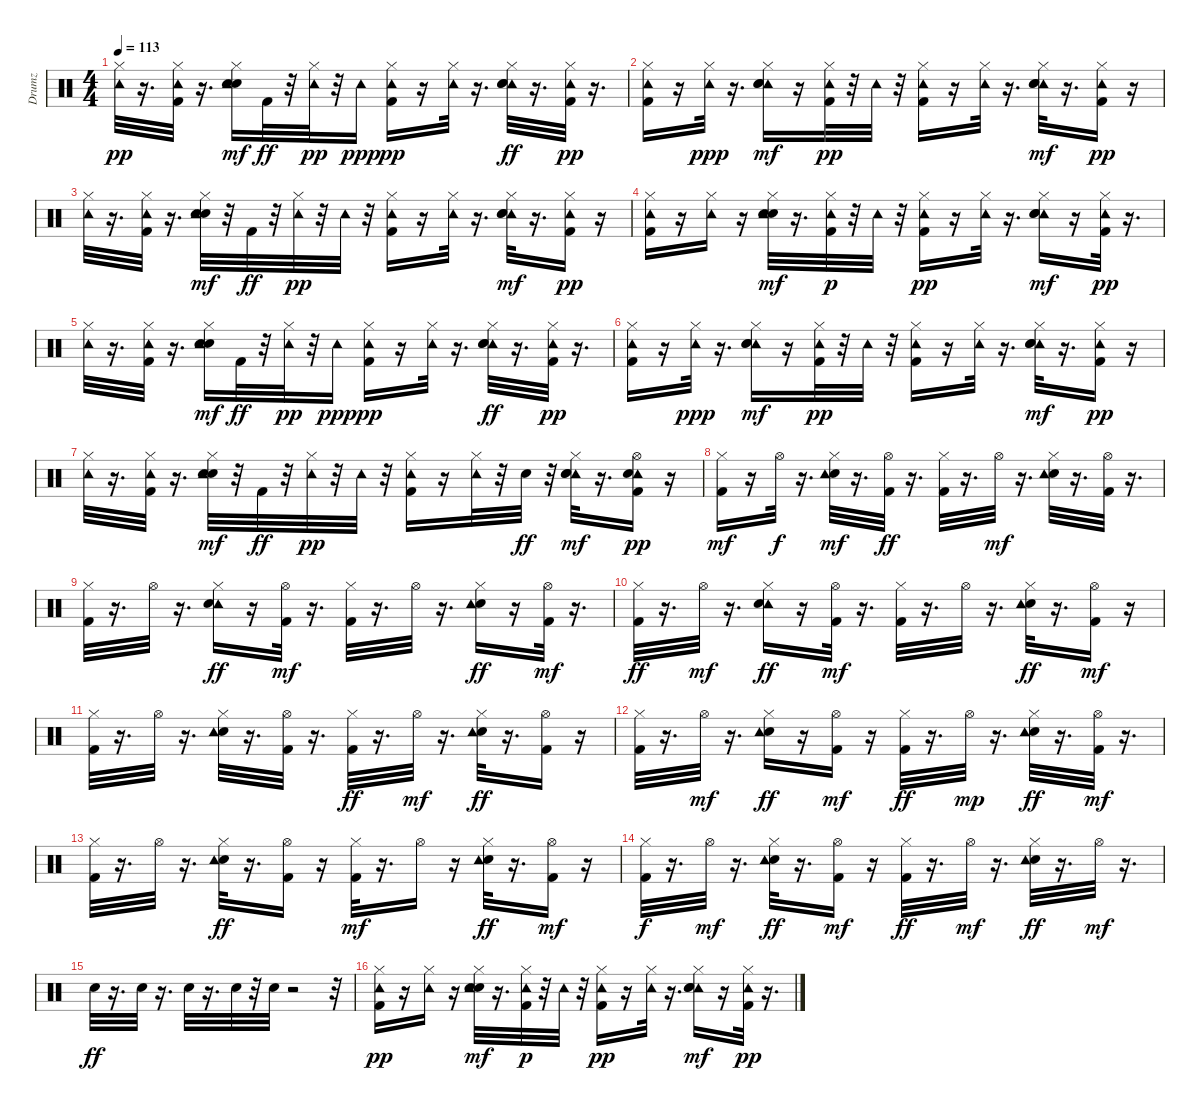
\track ("Drumz" "Drumz") {instrument percussion}
\staff {score}
\articulation defaults
\ts (4 4)
\tempo 113
\clef neutral
\ks c
("Hi-Hat (closed)" "Tambourine (hit)").32{dy pp} r.16{d} ("Kick (hit) 2" "Hi-Hat (closed)" "Tambourine (hit)").32 r.16{d} ("Electric Snare (hit)" "Hand Clap (hit)" "Hi-Hat (closed)" "Tambourine (hit)").16{dy mf} "Kick (hit) 2".32{dy ff} r.32 ("Hi-Hat (closed)" "Tambourine (hit)").32{dy pp} r.32 "Tambourine (hit)".16{dy ppp} ("Hi-Hat (closed)" "Kick (hit) 2" "Tambourine (hit)").16{dy pp} r.16 ("Hi-Hat (closed)" "Tambourine (hit)").32 r.16{d} ("Tambourine (hit)" "Hi-Hat (closed)" "Hand Clap (hit)" "Electric Snare (hit)").32{dy ff} r.16{d} ("Hi-Hat (closed)" "Kick (hit) 2" "Tambourine (hit)").32{dy pp} r.16{d} |
("Hi-Hat (closed)" "Kick (hit) 2" "Tambourine (hit)").16 r.16 ("Hi-Hat (closed)" "Tambourine (hit)").32{dy ppp} r.16{d} ("Tambourine (hit)" "Electric Snare (hit)" "Hi-Hat (closed)" "Hand Clap (hit)").16{dy mf} r.16 ("Kick (hit) 2" "Hi-Hat (closed)" "Tambourine (hit)").32{dy pp} r.32 "Tambourine (hit)".32 r.32 ("Kick (hit) 2" "Hi-Hat (closed)" "Tambourine (hit)").16 r.16 ("Hi-Hat (closed)" "Tambourine (hit)").32 r.16{d} ("Tambourine (hit)" "Electric Snare (hit)" "Hi-Hat (closed)" "Hand Clap (hit)").32{dy mf} r.16{d} ("Hi-Hat (closed)" "Kick (hit) 2" "Tambourine (hit)").16{dy pp} r.16 |
("Hi-Hat (closed)" "Tambourine (hit)").32 r.16{d} ("Kick (hit) 2" "Hi-Hat (closed)" "Tambourine (hit)").32 r.16{d} ("Hand Clap (hit)" "Electric Snare (hit)" "Hi-Hat (closed)" "Tambourine (hit)").32{dy mf} r.32 "Kick (hit) 2".32{dy ff} r.32 ("Hi-Hat (closed)" "Tambourine (hit)").32{dy pp} r.32 "Tambourine (hit)".32 r.32 ("Kick (hit) 2" "Hi-Hat (closed)" "Tambourine (hit)").16 r.16 ("Hi-Hat (closed)" "Tambourine (hit)").32 r.16{d} ("Tambourine (hit)" "Hand Clap (hit)" "Electric Snare (hit)" "Hi-Hat (closed)").32{dy mf} r.16{d} ("Kick (hit) 2" "Hi-Hat (closed)" "Tambourine (hit)").16{dy pp} r.16 |
("Hi-Hat (closed)" "Kick (hit) 2" "Tambourine (hit)").16 r.16 ("Hi-Hat (closed)" "Tambourine (hit)").16 r.16 ("Electric Snare (hit)" "Hand Clap (hit)" "Hi-Hat (closed)" "Tambourine (hit)").32{dy mf} r.16{d} ("Hi-Hat (closed)" "Kick (hit) 2" "Tambourine (hit)").32{dy p} r.32 "Tambourine (hit)".32 r.32 ("Kick (hit) 2" "Hi-Hat (closed)" "Tambourine (hit)").16{dy pp} r.16 ("Hi-Hat (closed)" "Tambourine (hit)").32 r.16{d} ("Tambourine (hit)" "Electric Snare (hit)" "Hi-Hat (closed)" "Hand Clap (hit)").16{dy mf} r.16 ("Hi-Hat (closed)" "Kick (hit) 2" "Tambourine (hit)").32{dy pp} r.16{d} |
("Hi-Hat (closed)" "Tambourine (hit)").32 r.16{d} ("Kick (hit) 2" "Hi-Hat (closed)" "Tambourine (hit)").32 r.16{d} ("Electric Snare (hit)" "Hand Clap (hit)" "Hi-Hat (closed)" "Tambourine (hit)").16{dy mf} "Kick (hit) 2".32{dy ff} r.32 ("Hi-Hat (closed)" "Tambourine (hit)").32{dy pp} r.32 "Tambourine (hit)".16{dy ppp} ("Hi-Hat (closed)" "Kick (hit) 2" "Tambourine (hit)").16{dy pp} r.16 ("Hi-Hat (closed)" "Tambourine (hit)").32 r.16{d} ("Tambourine (hit)" "Hi-Hat (closed)" "Hand Clap (hit)" "Electric Snare (hit)").32{dy ff} r.16{d} ("Hi-Hat (closed)" "Kick (hit) 2" "Tambourine (hit)").32{dy pp} r.16{d} |
("Hi-Hat (closed)" "Kick (hit) 2" "Tambourine (hit)").16 r.16 ("Hi-Hat (closed)" "Tambourine (hit)").32{dy ppp} r.16{d} ("Tambourine (hit)" "Electric Snare (hit)" "Hi-Hat (closed)" "Hand Clap (hit)").16{dy mf} r.16 ("Kick (hit) 2" "Hi-Hat (closed)" "Tambourine (hit)").32{dy pp} r.32 "Tambourine (hit)".32 r.32 ("Kick (hit) 2" "Hi-Hat (closed)" "Tambourine (hit)").16 r.16 ("Hi-Hat (closed)" "Tambourine (hit)").32 r.16{d} ("Tambourine (hit)" "Electric Snare (hit)" "Hi-Hat (closed)" "Hand Clap (hit)").32{dy mf} r.16{d} ("Hi-Hat (closed)" "Kick (hit) 2" "Tambourine (hit)").16{dy pp} r.16 |
("Hi-Hat (closed)" "Tambourine (hit)").32 r.16{d} ("Kick (hit) 2" "Hi-Hat (closed)" "Tambourine (hit)").32 r.16{d} ("Hand Clap (hit)" "Electric Snare (hit)" "Hi-Hat (closed)" "Tambourine (hit)").32{dy mf} r.32 "Kick (hit) 2".32{dy ff} r.32 ("Hi-Hat (closed)" "Tambourine (hit)").32{dy pp} r.32 "Tambourine (hit)".32 r.32 ("Kick (hit) 2" "Hi-Hat (closed)" "Tambourine (hit)").16 r.16 ("Hi-Hat (closed)" "Tambourine (hit)").32 r.32 "Electric Snare (hit)".32{dy ff} r.32 ("Tambourine (hit)" "Hand Clap (hit)" "Electric Snare (hit)" "Hi-Hat (closed)").32{dy mf} r.16{d} ("Hi-Hat (open)" "Kick (hit) 2" "Tambourine (hit)" "Electric Snare (hit)").16{dy pp} r.16 |
("Kick (hit) 2" "Hi-Hat (closed)").16{dy mf volume 12} r.16 "Hi-Hat (open)".32{dy f} r.16{d} ("Electric Snare (hit)" "Hi-Hat (closed)" "Tambourine (hit)").32{dy mf} r.16{d} ("Kick (hit) 2" "Hi-Hat (open)").32{dy ff} r.16{d} ("Kick (hit) 2" "Hi-Hat (closed)").32 r.16{d} "Hi-Hat (open)".32{dy mf} r.16{d} ("Electric Snare (hit)" "Hi-Hat (closed)" "Tambourine (hit)").32 r.16{d} ("Kick (hit) 2" "Hi-Hat (open)").32 r.16{d} |
("Kick (hit) 2" "Hi-Hat (closed)").32 r.16{d} "Hi-Hat (open)".32 r.16{d} ("Tambourine (hit)" "Hi-Hat (closed)" "Electric Snare (hit)").16{dy ff} r.16 ("Kick (hit) 2" "Hi-Hat (open)").32{dy mf} r.16{d} ("Kick (hit) 2" "Hi-Hat (closed)").32 r.16{d} "Hi-Hat (open)".32 r.16{d} ("Hi-Hat (closed)" "Electric Snare (hit)" "Tambourine (hit)").16{dy ff} r.16 ("Kick (hit) 2" "Hi-Hat (open)").32{dy mf} r.16{d} |
("Kick (hit) 2" "Hi-Hat (closed)").32{dy ff} r.16{d} "Hi-Hat (open)".32{dy mf} r.16{d} ("Tambourine (hit)" "Hi-Hat (closed)" "Electric Snare (hit)").16{dy ff} r.16 ("Hi-Hat (open)" "Kick (hit) 2").32{dy mf} r.16{d} ("Kick (hit) 2" "Hi-Hat (closed)").32 r.16{d} "Hi-Hat (open)".32 r.16{d} ("Electric Snare (hit)" "Hi-Hat (closed)" "Tambourine (hit)").32{dy ff} r.16{d} ("Hi-Hat (open)" "Kick (hit) 2").16{dy mf} r.16 |
("Kick (hit) 2" "Hi-Hat (closed)").32 r.16{d} "Hi-Hat (open)".32 r.16{d} ("Electric Snare (hit)" "Hi-Hat (closed)" "Tambourine (hit)").32 r.16{d} ("Hi-Hat (open)" "Kick (hit) 2").32 r.16{d} ("Hi-Hat (closed)" "Kick (hit) 2").32{dy ff} r.16{d} "Hi-Hat (open)".32{dy mf} r.16{d} ("Hi-Hat (closed)" "Electric Snare (hit)" "Tambourine (hit)").32{dy ff} r.16{d} ("Hi-Hat (open)" "Kick (hit) 2").16 r.16 |
("Hi-Hat (closed)" "Kick (hit) 2").32 r.16{d} "Hi-Hat (open)".32{dy mf} r.16{d} ("Hi-Hat (closed)" "Electric Snare (hit)" "Tambourine (hit)").16{dy ff} r.16 ("Kick (hit) 2" "Hi-Hat (open)").16{dy mf} r.16 ("Kick (hit) 2" "Hi-Hat (closed)").32{dy ff} r.16{d} "Hi-Hat (open)".32{dy mp} r.16{d} ("Hi-Hat (closed)" "Electric Snare (hit)" "Tambourine (hit)").32{dy ff} r.16{d} ("Kick (hit) 2" "Hi-Hat (open)").32{dy mf} r.16{d} |
("Kick (hit) 2" "Hi-Hat (closed)").32 r.16{d} "Hi-Hat (open)".32 r.16{d} ("Electric Snare (hit)" "Hi-Hat (closed)" "Tambourine (hit)").32{dy ff} r.16{d} ("Hi-Hat (open)" "Kick (hit) 2").16 r.16 ("Kick (hit) 2" "Hi-Hat (closed)").32{dy mf} r.16{d} "Hi-Hat (open)".16 r.16 ("Electric Snare (hit)" "Hi-Hat (closed)" "Tambourine (hit)").32{dy ff} r.16{d} ("Hi-Hat (open)" "Kick (hit) 2").16{dy mf} r.16 |
("Hi-Hat (closed)" "Kick (hit) 2").32{dy f} r.16{d} "Hi-Hat (open)".32{dy mf} r.16{d} ("Hi-Hat (closed)" "Electric Snare (hit)" "Tambourine (hit)").32{dy ff} r.16{d} ("Hi-Hat (open)" "Kick (hit) 2").16{dy mf} r.16 ("Hi-Hat (closed)" "Kick (hit) 2").32{dy ff} r.16{d} "Hi-Hat (open)".32{dy mf} r.16{d} ("Hi-Hat (closed)" "Electric Snare (hit)" "Tambourine (hit)").32{dy ff} r.16{d} "Hi-Hat (open)".32{dy mf} r.16{d} |
"Electric Snare (hit)".32{dy ff} r.16{d} "Electric Snare (hit)".32 r.16{d} "Electric Snare (hit)".32 r.16{d} "Electric Snare (hit)".32 r.32 "Electric Snare (hit)".32 r.2 r.32 |
("Hi-Hat (closed)" "Kick (hit) 2" "Tambourine (hit)").16{dy pp} r.16 ("Hi-Hat (closed)" "Tambourine (hit)").16 r.16 ("Electric Snare (hit)" "Hand Clap (hit)" "Hi-Hat (closed)" "Tambourine (hit)").32{dy mf} r.16{d} ("Hi-Hat (closed)" "Kick (hit) 2" "Tambourine (hit)").32{dy p} r.32 "Tambourine (hit)".32 r.32 ("Kick (hit) 2" "Hi-Hat (closed)" "Tambourine (hit)").16{dy pp} r.16 ("Hi-Hat (closed)" "Tambourine (hit)").32 r.16{d} ("Tambourine (hit)" "Electric Snare (hit)" "Hi-Hat (closed)" "Hand Clap (hit)").16{dy mf} r.16 ("Hi-Hat (closed)" "Kick (hit) 2" "Tambourine (hit)").32{dy pp} r.16{d}
